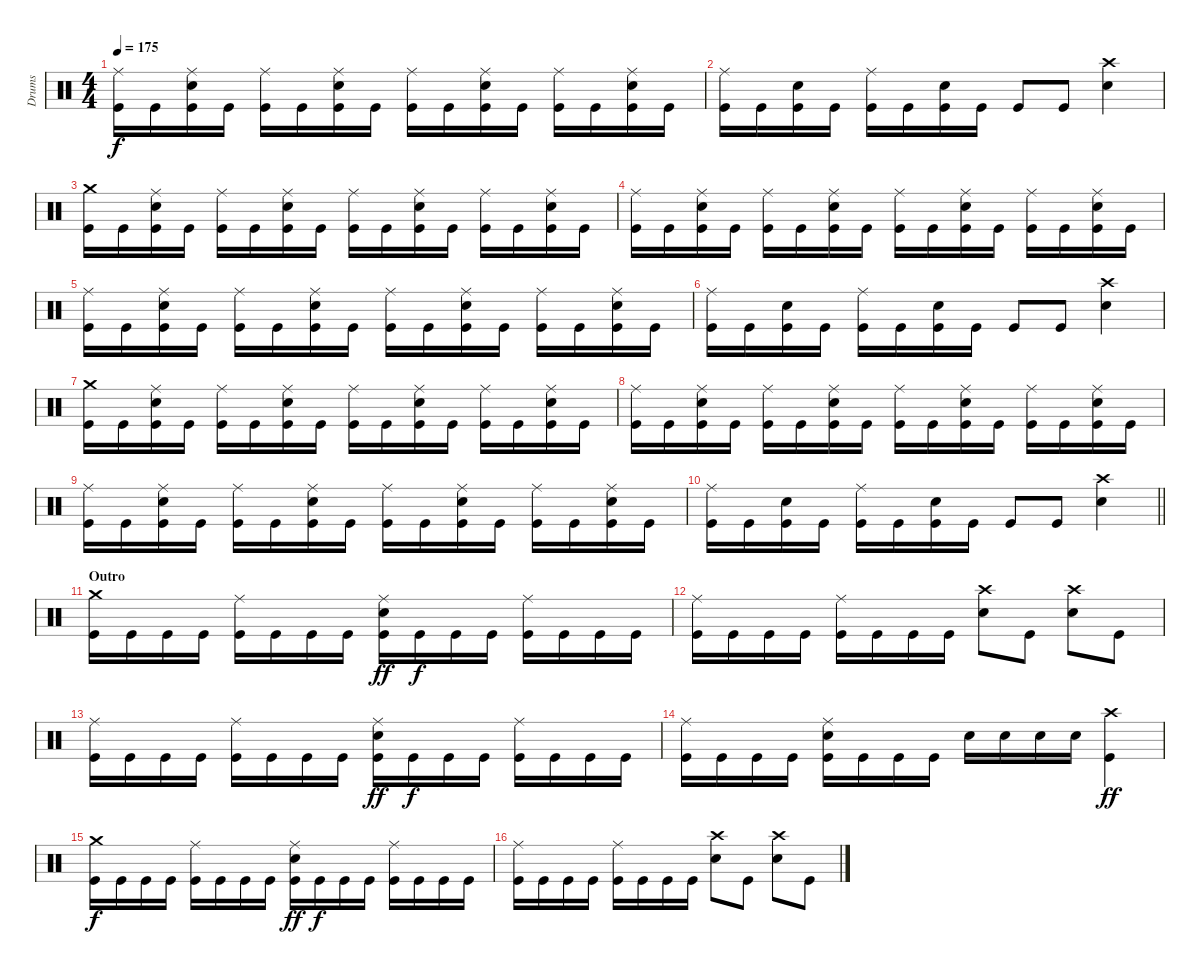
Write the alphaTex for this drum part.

\track ("Drums" "Drums") {instrument percussion}
\staff {score}
\articulation defaults
\ts (4 4)
\tempo 175
\clef neutral
\ks c
("Ride (middle)" "Kick (hit)").16{dy f} "Kick (hit)".16 ("Ride (middle)" "Snare (hit) 2" "Kick (hit)").16 "Kick (hit)".16 ("Ride (middle)" "Kick (hit)").16 "Kick (hit)".16 ("Ride (middle)" "Snare (hit) 2" "Kick (hit)").16 "Kick (hit)".16 ("Ride (middle)" "Kick (hit)").16 "Kick (hit)".16 ("Ride (middle)" "Snare (hit) 2" "Kick (hit)").16 "Kick (hit)".16 ("Ride (middle)" "Kick (hit)").16 "Kick (hit)".16 ("Ride (middle)" "Snare (hit) 2" "Kick (hit)").16 "Kick (hit)".16 |
("Ride (middle)" "Kick (hit)").16 "Kick (hit)".16 ("Snare (hit) 2" "Kick (hit)").16 "Kick (hit)".16 ("Ride (middle)" "Kick (hit)").16 "Kick (hit)".16 ("Snare (hit) 2" "Kick (hit)").16 "Kick (hit)".16 "Kick (hit)".8 "Kick (hit)".8 ("Crash high (hit)" "Snare (hit) 2").4 |
("Crash medium (hit)" "Kick (hit)").16 "Kick (hit)".16 ("Ride (middle)" "Snare (hit) 2" "Kick (hit)").16 "Kick (hit)".16 ("Ride (middle)" "Kick (hit)").16 "Kick (hit)".16 ("Ride (middle)" "Snare (hit) 2" "Kick (hit)").16 "Kick (hit)".16 ("Ride (middle)" "Kick (hit)").16 "Kick (hit)".16 ("Ride (middle)" "Snare (hit) 2" "Kick (hit)").16 "Kick (hit)".16 ("Ride (middle)" "Kick (hit)").16 "Kick (hit)".16 ("Ride (middle)" "Snare (hit) 2" "Kick (hit)").16 "Kick (hit)".16 |
("Ride (middle)" "Kick (hit)").16 "Kick (hit)".16 ("Ride (middle)" "Snare (hit) 2" "Kick (hit)").16 "Kick (hit)".16 ("Ride (middle)" "Kick (hit)").16 "Kick (hit)".16 ("Ride (middle)" "Snare (hit) 2" "Kick (hit)").16 "Kick (hit)".16 ("Ride (middle)" "Kick (hit)").16 "Kick (hit)".16 ("Ride (middle)" "Snare (hit) 2" "Kick (hit)").16 "Kick (hit)".16 ("Ride (middle)" "Kick (hit)").16 "Kick (hit)".16 ("Ride (middle)" "Snare (hit) 2" "Kick (hit)").16 "Kick (hit)".16 |
("Ride (middle)" "Kick (hit)").16 "Kick (hit)".16 ("Ride (middle)" "Snare (hit) 2" "Kick (hit)").16 "Kick (hit)".16 ("Ride (middle)" "Kick (hit)").16 "Kick (hit)".16 ("Ride (middle)" "Snare (hit) 2" "Kick (hit)").16 "Kick (hit)".16 ("Ride (middle)" "Kick (hit)").16 "Kick (hit)".16 ("Ride (middle)" "Snare (hit) 2" "Kick (hit)").16 "Kick (hit)".16 ("Ride (middle)" "Kick (hit)").16 "Kick (hit)".16 ("Ride (middle)" "Snare (hit) 2" "Kick (hit)").16 "Kick (hit)".16 |
("Ride (middle)" "Kick (hit)").16 "Kick (hit)".16 ("Snare (hit) 2" "Kick (hit)").16 "Kick (hit)".16 ("Ride (middle)" "Kick (hit)").16 "Kick (hit)".16 ("Snare (hit) 2" "Kick (hit)").16 "Kick (hit)".16 "Kick (hit)".8 "Kick (hit)".8 ("Crash high (hit)" "Snare (hit) 2").4 |
("Crash medium (hit)" "Kick (hit)").16 "Kick (hit)".16 ("Ride (middle)" "Snare (hit) 2" "Kick (hit)").16 "Kick (hit)".16 ("Ride (middle)" "Kick (hit)").16 "Kick (hit)".16 ("Ride (middle)" "Snare (hit) 2" "Kick (hit)").16 "Kick (hit)".16 ("Ride (middle)" "Kick (hit)").16 "Kick (hit)".16 ("Ride (middle)" "Snare (hit) 2" "Kick (hit)").16 "Kick (hit)".16 ("Ride (middle)" "Kick (hit)").16 "Kick (hit)".16 ("Ride (middle)" "Snare (hit) 2" "Kick (hit)").16 "Kick (hit)".16 |
("Ride (middle)" "Kick (hit)").16 "Kick (hit)".16 ("Ride (middle)" "Snare (hit) 2" "Kick (hit)").16 "Kick (hit)".16 ("Ride (middle)" "Kick (hit)").16 "Kick (hit)".16 ("Ride (middle)" "Snare (hit) 2" "Kick (hit)").16 "Kick (hit)".16 ("Ride (middle)" "Kick (hit)").16 "Kick (hit)".16 ("Ride (middle)" "Snare (hit) 2" "Kick (hit)").16 "Kick (hit)".16 ("Ride (middle)" "Kick (hit)").16 "Kick (hit)".16 ("Ride (middle)" "Snare (hit) 2" "Kick (hit)").16 "Kick (hit)".16 |
("Ride (middle)" "Kick (hit)").16 "Kick (hit)".16 ("Ride (middle)" "Snare (hit) 2" "Kick (hit)").16 "Kick (hit)".16 ("Ride (middle)" "Kick (hit)").16 "Kick (hit)".16 ("Ride (middle)" "Snare (hit) 2" "Kick (hit)").16 "Kick (hit)".16 ("Ride (middle)" "Kick (hit)").16 "Kick (hit)".16 ("Ride (middle)" "Snare (hit) 2" "Kick (hit)").16 "Kick (hit)".16 ("Ride (middle)" "Kick (hit)").16 "Kick (hit)".16 ("Ride (middle)" "Snare (hit) 2" "Kick (hit)").16 "Kick (hit)".16 |
\barLineRight lightlight
("Ride (middle)" "Kick (hit)").16 "Kick (hit)".16 ("Snare (hit) 2" "Kick (hit)").16 "Kick (hit)".16 ("Ride (middle)" "Kick (hit)").16 "Kick (hit)".16 ("Snare (hit) 2" "Kick (hit)").16 "Kick (hit)".16 "Kick (hit)".8 "Kick (hit)".8 ("Crash high (hit)" "Snare (hit) 2").4 |
\section ("" "Outro")
("Crash medium (hit)" "Kick (hit)").16 "Kick (hit)".16 "Kick (hit)".16 "Kick (hit)".16 ("Ride (middle)" "Kick (hit)").16 "Kick (hit)".16 "Kick (hit)".16 "Kick (hit)".16 ("Ride (middle)" "Snare (hit) 2" "Kick (hit)").16{dy ff} "Kick (hit)".16{dy f} "Kick (hit)".16 "Kick (hit)".16 ("Ride (middle)" "Kick (hit)").16 "Kick (hit)".16 "Kick (hit)".16 "Kick (hit)".16 |
("Ride (middle)" "Kick (hit)").16 "Kick (hit)".16 "Kick (hit)".16 "Kick (hit)".16 ("Ride (middle)" "Kick (hit)").16 "Kick (hit)".16 "Kick (hit)".16 "Kick (hit)".16 ("Crash high (hit)" "Snare (hit) 2").8 "Kick (hit)".8 ("Crash high (hit)" "Snare (hit) 2").8 "Kick (hit)".8 |
("Ride (middle)" "Kick (hit)").16 "Kick (hit)".16 "Kick (hit)".16 "Kick (hit)".16 ("Ride (middle)" "Kick (hit)").16 "Kick (hit)".16 "Kick (hit)".16 "Kick (hit)".16 ("Ride (middle)" "Snare (hit) 2" "Kick (hit)").16{dy ff} "Kick (hit)".16{dy f} "Kick (hit)".16 "Kick (hit)".16 ("Ride (middle)" "Kick (hit)").16 "Kick (hit)".16 "Kick (hit)".16 "Kick (hit)".16 |
("Ride (middle)" "Kick (hit)").16 "Kick (hit)".16 "Kick (hit)".16 "Kick (hit)".16 ("Ride (middle)" "Snare (hit) 2" "Kick (hit)").16 "Kick (hit)".16 "Kick (hit)".16 "Kick (hit)".16 "Snare (hit) 2".16 "Snare (hit) 2".16 "Snare (hit) 2".16 "Snare (hit) 2".16 ("Crash high (hit)" "Kick (hit)").4{dy ff} |
("Crash medium (hit)" "Kick (hit)").16{dy f} "Kick (hit)".16 "Kick (hit)".16 "Kick (hit)".16 ("Ride (middle)" "Kick (hit)").16 "Kick (hit)".16 "Kick (hit)".16 "Kick (hit)".16 ("Ride (middle)" "Snare (hit) 2" "Kick (hit)").16{dy ff} "Kick (hit)".16{dy f} "Kick (hit)".16 "Kick (hit)".16 ("Ride (middle)" "Kick (hit)").16 "Kick (hit)".16 "Kick (hit)".16 "Kick (hit)".16 |
("Ride (middle)" "Kick (hit)").16 "Kick (hit)".16 "Kick (hit)".16 "Kick (hit)".16 ("Ride (middle)" "Kick (hit)").16 "Kick (hit)".16 "Kick (hit)".16 "Kick (hit)".16 ("Crash high (hit)" "Snare (hit) 2").8 "Kick (hit)".8 ("Crash high (hit)" "Snare (hit) 2").8 "Kick (hit)".8
